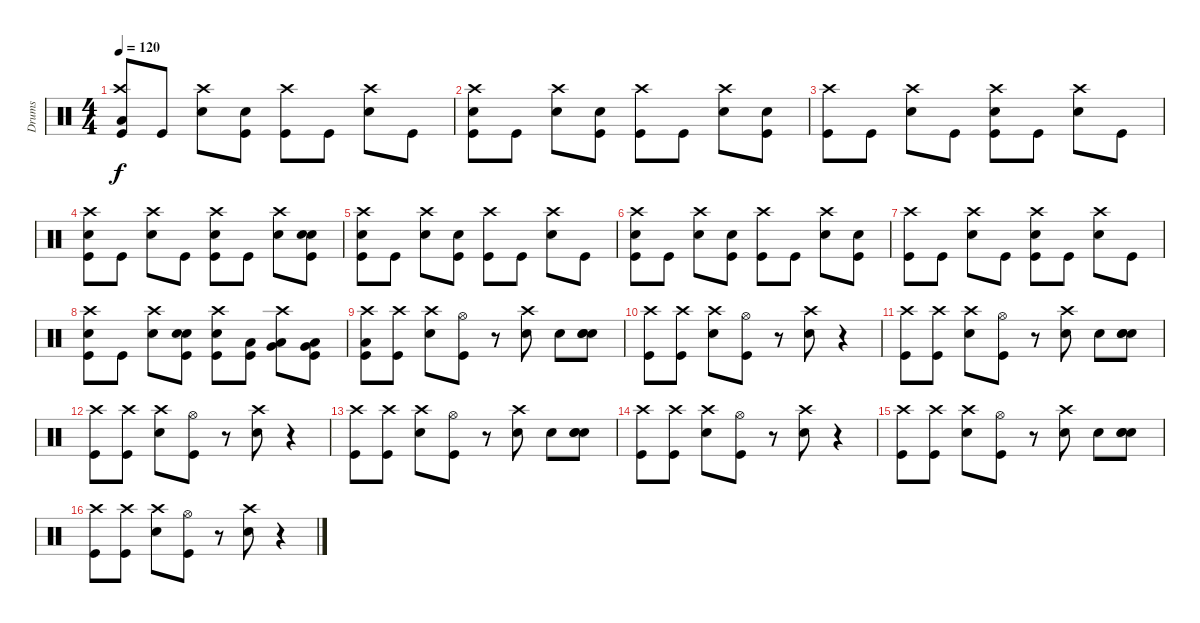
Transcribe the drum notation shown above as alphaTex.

\track ("Drums" "Drums") {instrument percussion}
\staff {score}
\articulation defaults
\ts (4 4)
\tempo 120
\clef neutral
\ks c
("Low Floor Tom (hit)" "Crash high (hit)" "Kick (hit)").8{dy f} "Kick (hit)".8 ("Electric Snare (hit)" "Crash high (hit)").8 ("Kick (hit)" "Electric Snare (hit)").8 ("Crash high (hit)" "Kick (hit)").8 "Kick (hit)".8 ("Crash high (hit)" "Electric Snare (hit)").8 "Kick (hit)".8 |
("Electric Snare (hit)" "Crash high (hit)" "Kick (hit)").8 "Kick (hit)".8 ("Crash high (hit)" "Electric Snare (hit)").8 ("Kick (hit)" "Electric Snare (hit)").8 ("Crash high (hit)" "Kick (hit)").8 "Kick (hit)".8 ("Crash high (hit)" "Electric Snare (hit)").8 ("Kick (hit)" "Electric Snare (hit)").8 |
("Crash high (hit)" "Kick (hit)").8 "Kick (hit)".8 ("Crash high (hit)" "Electric Snare (hit)").8 "Kick (hit)".8 ("Electric Snare (hit)" "Crash high (hit)" "Kick (hit)").8 "Kick (hit)".8 ("Crash high (hit)" "Electric Snare (hit)").8 "Kick (hit)".8 |
("Electric Snare (hit)" "Crash high (hit)" "Kick (hit)").8 "Kick (hit)".8 ("Crash high (hit)" "Electric Snare (hit)").8 "Kick (hit)".8 ("Electric Snare (hit)" "Crash high (hit)" "Kick (hit)").8 "Kick (hit)".8 ("Crash high (hit)" "Electric Snare (hit)").8 ("Electric Snare (hit)" "Kick (hit)" "Electric Snare (hit)").8 |
("Electric Snare (hit)" "Crash high (hit)" "Kick (hit)").8 "Kick (hit)".8 ("Electric Snare (hit)" "Crash high (hit)").8 ("Kick (hit)" "Electric Snare (hit)").8 ("Crash high (hit)" "Kick (hit)").8 "Kick (hit)".8 ("Crash high (hit)" "Electric Snare (hit)").8 "Kick (hit)".8 |
("Electric Snare (hit)" "Crash high (hit)" "Kick (hit)").8 "Kick (hit)".8 ("Crash high (hit)" "Electric Snare (hit)").8 ("Kick (hit)" "Electric Snare (hit)").8 ("Crash high (hit)" "Kick (hit)").8 "Kick (hit)".8 ("Crash high (hit)" "Electric Snare (hit)").8 ("Kick (hit)" "Electric Snare (hit)").8 |
("Crash high (hit)" "Kick (hit)").8 "Kick (hit)".8 ("Crash high (hit)" "Electric Snare (hit)").8 "Kick (hit)".8 ("Electric Snare (hit)" "Crash high (hit)" "Kick (hit)").8 "Kick (hit)".8 ("Crash high (hit)" "Electric Snare (hit)").8 "Kick (hit)".8 |
("Electric Snare (hit)" "Crash high (hit)" "Kick (hit)").8 "Kick (hit)".8 ("Crash high (hit)" "Electric Snare (hit)").8 ("Kick (hit)" "Electric Snare (hit)" "Electric Snare (hit)").8 ("Electric Snare (hit)" "Crash high (hit)" "Kick (hit)").8 ("Kick (hit)" "Low Tom (hit)").8 ("Low Tom (hit)" "Crash high (hit)" "Very Low Tom (hit)").8 ("Kick (hit)" "Very Low Tom (hit)" "Low Floor Tom (hit)").8 |
("Low Floor Tom (hit)" "Crash high (hit)" "Kick (hit)").8 ("Crash high (hit)" "Kick (hit)").8 ("Crash high (hit)" "Electric Snare (hit)").8 ("Kick (hit)" "Hi-Hat (open)").8 r.8 ("Crash high (hit)" "Electric Snare (hit)").8 "Electric Snare (hit)".8 ("Electric Snare (hit)" "Electric Snare (hit)" "Electric Snare (hit)").8 |
("Kick (hit)" "Crash high (hit)").8 ("Crash high (hit)" "Kick (hit)").8 ("Crash high (hit)" "Electric Snare (hit)").8 ("Kick (hit)" "Hi-Hat (open)").8 r.8 ("Crash high (hit)" "Electric Snare (hit)").8 r.4 |
("Kick (hit)" "Crash high (hit)").8 ("Crash high (hit)" "Kick (hit)").8 ("Crash high (hit)" "Electric Snare (hit)").8 ("Kick (hit)" "Hi-Hat (open)").8 r.8 ("Crash high (hit)" "Electric Snare (hit)").8 "Electric Snare (hit)".8 ("Electric Snare (hit)" "Electric Snare (hit)" "Electric Snare (hit)").8 |
("Kick (hit)" "Crash high (hit)").8 ("Crash high (hit)" "Kick (hit)").8 ("Crash high (hit)" "Electric Snare (hit)").8 ("Kick (hit)" "Hi-Hat (open)").8 r.8 ("Crash high (hit)" "Electric Snare (hit)").8 r.4 |
("Kick (hit)" "Crash high (hit)").8 ("Crash high (hit)" "Kick (hit)").8 ("Crash high (hit)" "Electric Snare (hit)").8 ("Kick (hit)" "Hi-Hat (open)").8 r.8 ("Crash high (hit)" "Electric Snare (hit)").8 "Electric Snare (hit)".8 ("Electric Snare (hit)" "Electric Snare (hit)" "Electric Snare (hit)").8 |
("Kick (hit)" "Crash high (hit)").8 ("Crash high (hit)" "Kick (hit)").8 ("Crash high (hit)" "Electric Snare (hit)").8 ("Kick (hit)" "Hi-Hat (open)").8 r.8 ("Crash high (hit)" "Electric Snare (hit)").8 r.4 |
("Kick (hit)" "Crash high (hit)").8 ("Crash high (hit)" "Kick (hit)").8 ("Crash high (hit)" "Electric Snare (hit)").8 ("Kick (hit)" "Hi-Hat (open)").8 r.8 ("Crash high (hit)" "Electric Snare (hit)").8 "Electric Snare (hit)".8 ("Electric Snare (hit)" "Electric Snare (hit)" "Electric Snare (hit)").8 |
("Kick (hit)" "Crash high (hit)").8 ("Crash high (hit)" "Kick (hit)").8 ("Crash high (hit)" "Electric Snare (hit)").8 ("Kick (hit)" "Hi-Hat (open)").8 r.8 ("Crash high (hit)" "Electric Snare (hit)").8 r.4
